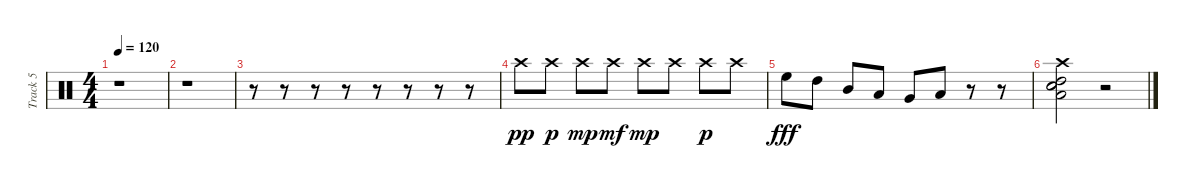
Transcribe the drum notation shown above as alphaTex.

\track ("Track 5" "Track 5") {instrument percussion}
\staff {score}
\articulation defaults
\ts (4 4)
\tempo 120
\clef neutral
\ks c
r.1{dy fff} |
r.1 |
r.8 r.8 r.8 r.8 r.8 r.8 r.8 r.8 |
"Crash high (hit)".8{dy pp} "Crash high (hit)".8{dy p} "Crash high (hit)".8{dy mp} "Crash high (hit)".8{dy mf} "Crash high (hit)".8{dy mp} "Crash high (hit)".8 "Crash high (hit)".8{dy p} "Crash high (hit)".8 |
"High Floor Tom (hit)".8{dy fff} "High Tom (hit)".8 "Mid Tom (hit)".8 "Low Tom (hit)".8 "Very Low Tom (hit)".8 "Low Floor Tom (hit)".8 r.8 r.8 |
("High Tom (hit)" "Low Tom (hit)" "Electric Snare (hit)" "Snare (hit) 2" "Crash high (hit)").2 r.2
